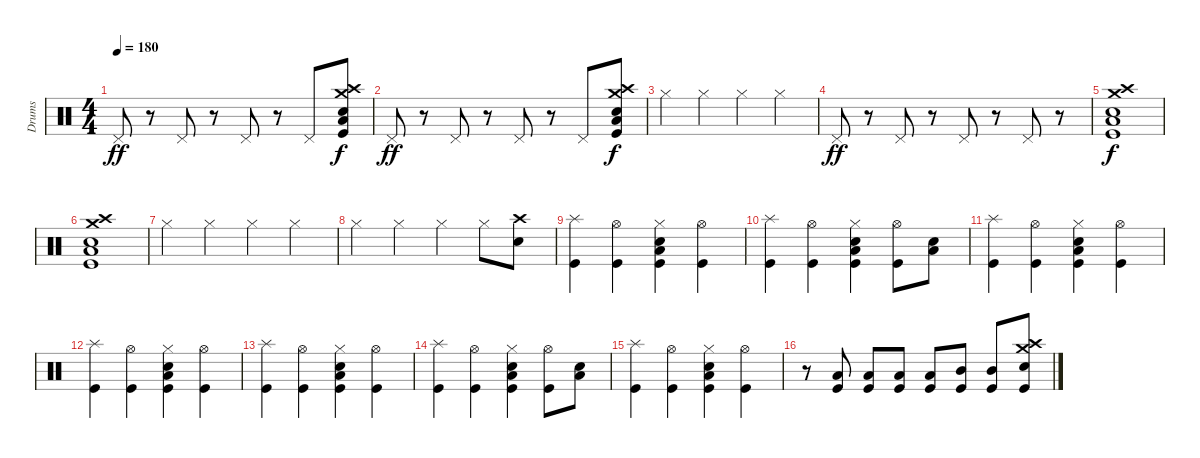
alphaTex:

\track ("Drums" "Drums") {instrument percussion}
\staff {score}
\articulation defaults
\ts (4 4)
\tempo 180
\clef neutral
\ks c "Pedal Hi-Hat (hit)".8{dy ff}
r.8 "Pedal Hi-Hat (hit)".8 r.8 "Pedal Hi-Hat (hit)".8 r.8 "Pedal Hi-Hat (hit)".8 ("Kick (hit)" "Crash high (hit)" "Crash medium (hit)" "Low Tom (hit)" "Electric Snare (hit)").8{dy f} |
"Pedal Hi-Hat (hit)".8{dy ff} r.8 "Pedal Hi-Hat (hit)".8 r.8 "Pedal Hi-Hat (hit)".8 r.8 "Pedal Hi-Hat (hit)".8 ("Kick (hit)" "Crash high (hit)" "Crash medium (hit)" "Low Tom (hit)" "Electric Snare (hit)").8{dy f} |
"Hi-Hat (closed)".4 "Hi-Hat (closed)".4 "Hi-Hat (closed)".4 "Hi-Hat (closed)".4 |
"Pedal Hi-Hat (hit)".8{dy ff} r.8 "Pedal Hi-Hat (hit)".8 r.8 "Pedal Hi-Hat (hit)".8 r.8 "Pedal Hi-Hat (hit)".8 r.8 |
("Kick (hit)" "Crash high (hit)" "Crash medium (hit)" "Low Tom (hit)" "Electric Snare (hit)").1{dy f} |
("Kick (hit)" "Crash high (hit)" "Crash medium (hit)" "Low Tom (hit)" "Electric Snare (hit)").1 |
"Hi-Hat (closed)".4 "Hi-Hat (closed)".4 "Hi-Hat (closed)".4 "Hi-Hat (closed)".4 |
"Hi-Hat (closed)".4 "Hi-Hat (closed)".4 "Hi-Hat (closed)".4 "Hi-Hat (closed)".8 ("Crash high (hit)" "Electric Snare (hit)").8 |
("Splash (hit)" "Kick (hit)").4 ("Hi-Hat (open)" "Kick (hit)").4 ("Hi-Hat (closed)" "Electric Snare (hit)" "Low Tom (hit)" "Kick (hit)").4 ("Hi-Hat (open)" "Kick (hit)").4 |
("Splash (hit)" "Kick (hit)").4 ("Hi-Hat (open)" "Kick (hit)").4 ("Hi-Hat (closed)" "Electric Snare (hit)" "Low Tom (hit)" "Kick (hit)").4 ("Hi-Hat (open)" "Kick (hit)").8 ("Electric Snare (hit)" "Low Tom (hit)").8 |
("Splash (hit)" "Kick (hit)").4 ("Hi-Hat (open)" "Kick (hit)").4 ("Hi-Hat (closed)" "Electric Snare (hit)" "Low Tom (hit)" "Kick (hit)").4 ("Hi-Hat (open)" "Kick (hit)").4 |
("Splash (hit)" "Kick (hit)").4 ("Hi-Hat (open)" "Kick (hit)").4 ("Hi-Hat (closed)" "Electric Snare (hit)" "Low Tom (hit)" "Kick (hit)").4 ("Hi-Hat (open)" "Kick (hit)").4 |
("Splash (hit)" "Kick (hit)").4 ("Hi-Hat (open)" "Kick (hit)").4 ("Hi-Hat (closed)" "Electric Snare (hit)" "Low Tom (hit)" "Kick (hit)").4 ("Hi-Hat (open)" "Kick (hit)").4 |
("Splash (hit)" "Kick (hit)").4 ("Hi-Hat (open)" "Kick (hit)").4 ("Hi-Hat (closed)" "Electric Snare (hit)" "Low Tom (hit)" "Kick (hit)").4 ("Hi-Hat (open)" "Kick (hit)").8 ("Electric Snare (hit)" "Low Tom (hit)").8 |
("Splash (hit)" "Kick (hit)").4 ("Hi-Hat (open)" "Kick (hit)").4 ("Hi-Hat (closed)" "Electric Snare (hit)" "Low Tom (hit)" "Kick (hit)").4 ("Hi-Hat (open)" "Kick (hit)").4 |
r.8 ("Low Floor Tom (hit)" "Kick (hit)").8 ("Low Floor Tom (hit)" "Kick (hit)").8 ("Low Floor Tom (hit)" "Kick (hit)").8 ("Low Tom (hit)" "Kick (hit)").8 ("Mid Tom (hit)" "Kick (hit)").8 ("Mid Tom (hit)" "Kick (hit)").8 ("Crash medium (hit)" "Crash high (hit)" "Electric Snare (hit)" "Kick (hit)").8
